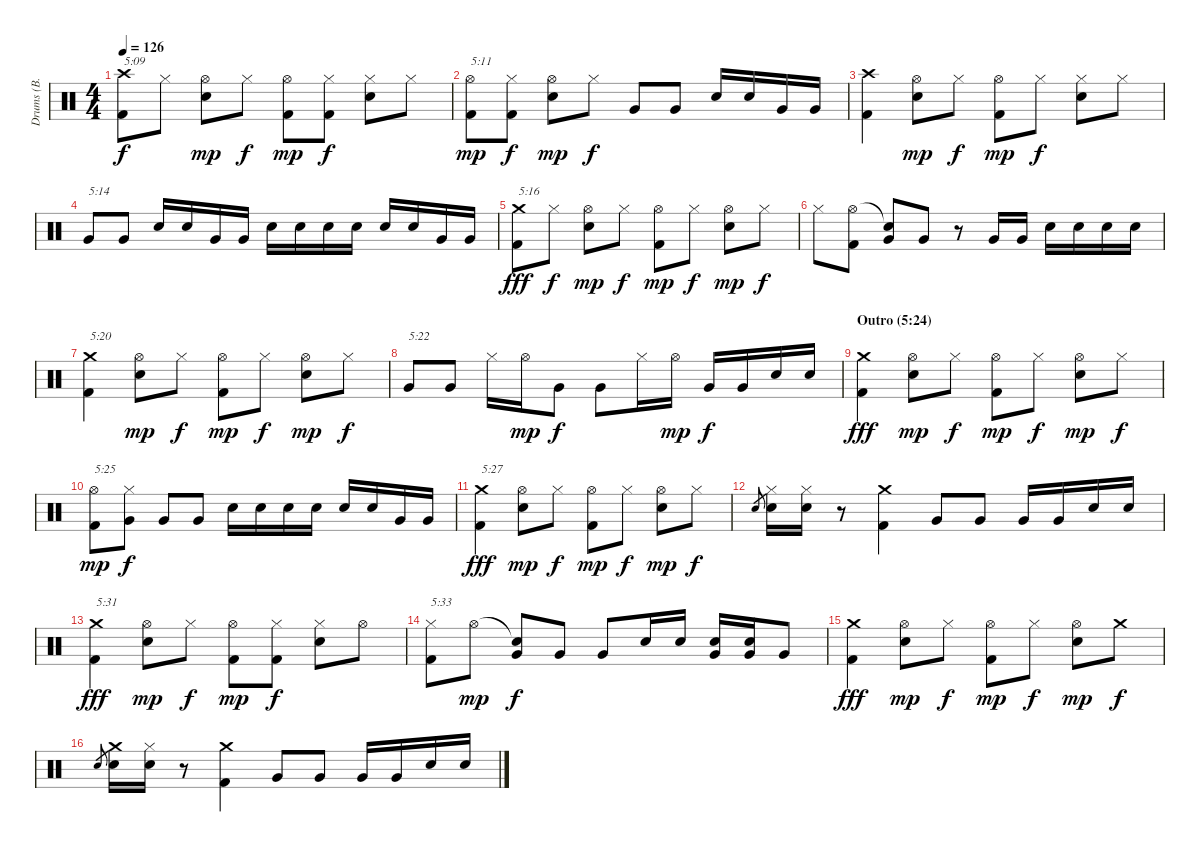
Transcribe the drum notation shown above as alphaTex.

\track ("Drums (B. Downey)" "Drums (B. ") {instrument percussion}
\staff {score}
\articulation defaults
\ts (4 4)
\tempo 126
\clef neutral
\ks c
("Crash high (hit)" "Kick (hit) 2").8{txt "5:09" dy f balance 8} "Hi-Hat (closed)".8 ("Hi-Hat (open)" "Electric Snare (hit)").8{dy mp} "Hi-Hat (closed)".8{dy f} ("Hi-Hat (open)" "Kick (hit) 2").8{dy mp} ("Hi-Hat (closed)" "Kick (hit) 2").8{dy f} ("Hi-Hat (closed)" "Electric Snare (hit)").8 "Hi-Hat (closed)".8 |
("Hi-Hat (open)" "Kick (hit) 2").8{txt "5:11" dy mp} ("Hi-Hat (closed)" "Kick (hit) 2").8{dy f} ("Hi-Hat (open)" "Electric Snare (hit)").8{dy mp} "Hi-Hat (closed)".8{dy f} "Very Low Tom (hit)".8 "Very Low Tom (hit)".8 "Electric Snare (hit)".16 "Electric Snare (hit)".16 "Very Low Tom (hit)".16 "Very Low Tom (hit)".16 |
("Crash high (hit)" "Kick (hit) 2").4 ("Hi-Hat (open)" "Electric Snare (hit)").8{dy mp} "Hi-Hat (closed)".8{dy f} ("Hi-Hat (open)" "Kick (hit) 2").8{dy mp} "Hi-Hat (closed)".8{dy f} ("Hi-Hat (closed)" "Electric Snare (hit)").8 "Hi-Hat (closed)".8 |
"Very Low Tom (hit)".8{txt "5:14"} "Very Low Tom (hit)".8 "Electric Snare (hit)".16 "Electric Snare (hit)".16 "Very Low Tom (hit)".16 "Very Low Tom (hit)".16 "Electric Snare (hit)".16 "Electric Snare (hit)".16 "Electric Snare (hit)".16 "Electric Snare (hit)".16 "Electric Snare (hit)".16 "Electric Snare (hit)".16 "Very Low Tom (hit)".16 "Very Low Tom (hit)".16 |
("Crash medium (hit)" "Kick (hit) 2").8{txt "5:16" dy fff} "Hi-Hat (closed)".8{dy f} ("Hi-Hat (open)" "Electric Snare (hit)").8{dy mp} "Hi-Hat (closed)".8{dy f} ("Hi-Hat (open)" "Kick (hit) 2").8{dy mp} "Hi-Hat (closed)".8{dy f} ("Hi-Hat (open)" "Electric Snare (hit)").8{dy mp} "Hi-Hat (closed)".8{dy f} |
"Hi-Hat (closed)".8 ("Hi-Hat (open)" "Kick (hit) 2").8 ("Snare (hit)"{t} "Very Low Tom (hit)").8 "Very Low Tom (hit)".8 r.8 "Very Low Tom (hit)".16 "Very Low Tom (hit)".16 "Electric Snare (hit)".16 "Electric Snare (hit)".16 "Electric Snare (hit)".16 "Electric Snare (hit)".16 |
("Crash medium (hit)" "Kick (hit) 2").4{txt "5:20"} ("Hi-Hat (open)" "Electric Snare (hit)").8{dy mp} "Hi-Hat (closed)".8{dy f} ("Hi-Hat (open)" "Kick (hit) 2").8{dy mp} "Hi-Hat (closed)".8{dy f} ("Hi-Hat (open)" "Electric Snare (hit)").8{dy mp} "Hi-Hat (closed)".8{dy f} |
"Very Low Tom (hit)".8{txt "5:22"} "Very Low Tom (hit)".8 "Hi-Hat (closed)".16 "Hi-Hat (open)".16{dy mp} "Very Low Tom (hit)".8{dy f} "Very Low Tom (hit)".8 "Hi-Hat (closed)".16 "Hi-Hat (open)".16{dy mp} "Very Low Tom (hit)".16{dy f} "Very Low Tom (hit)".16 "Electric Snare (hit)".16 "Electric Snare (hit)".16 |
\section ("" "Outro (5:24)")
("Crash medium (hit)" "Kick (hit) 2").4{dy fff} ("Hi-Hat (open)" "Electric Snare (hit)").8{dy mp} "Hi-Hat (closed)".8{dy f} ("Hi-Hat (open)" "Kick (hit) 2").8{dy mp} "Hi-Hat (closed)".8{dy f} ("Hi-Hat (open)" "Electric Snare (hit)").8{dy mp} "Hi-Hat (closed)".8{dy f} |
("Hi-Hat (open)" "Kick (hit) 2").8{txt "5:25" dy mp} ("Hi-Hat (closed)" "Very Low Tom (hit)").8{dy f} "Very Low Tom (hit)".8 "Very Low Tom (hit)".8 "Electric Snare (hit)".16 "Electric Snare (hit)".16 "Electric Snare (hit)".16 "Electric Snare (hit)".16 "Electric Snare (hit)".16 "Electric Snare (hit)".16 "Very Low Tom (hit)".16 "Very Low Tom (hit)".16 |
("Crash medium (hit)" "Kick (hit) 2").4{txt "5:27" dy fff} ("Hi-Hat (open)" "Electric Snare (hit)").8{dy mp} "Hi-Hat (closed)".8{dy f} ("Hi-Hat (open)" "Kick (hit) 2").8{dy mp} "Hi-Hat (closed)".8{dy f} ("Hi-Hat (open)" "Electric Snare (hit)").8{dy mp} "Hi-Hat (closed)".8{dy f} |
"Electric Snare (hit)".8{gr} ("Hi-Hat (closed)" "Electric Snare (hit)").16{volume 7} ("Hi-Hat (closed)" "Electric Snare (hit)").16 r.8 ("Crash medium (hit)" "Kick (hit) 2").4 "Very Low Tom (hit)".8 "Very Low Tom (hit)".8 "Very Low Tom (hit)".16 "Very Low Tom (hit)".16 "Electric Snare (hit)".16 "Electric Snare (hit)".16 |
("Crash medium (hit)" "Kick (hit) 2").4{txt "5:31" dy fff} ("Hi-Hat (open)" "Electric Snare (hit)").8{dy mp} "Hi-Hat (closed)".8{dy f} ("Hi-Hat (open)" "Kick (hit) 2").8{dy mp} ("Hi-Hat (closed)" "Kick (hit) 2").8{dy f} ("Hi-Hat (closed)" "Electric Snare (hit)").8 "Hi-Hat (open)".8 |
("Hi-Hat (closed)" "Kick (hit) 2").8{txt "5:33"} "Hi-Hat (open)".8{dy mp} ("Snare (hit)"{t} "Very Low Tom (hit)").8{dy f} "Very Low Tom (hit)".8 "Very Low Tom (hit)".8 "Electric Snare (hit)".16 "Electric Snare (hit)".16 ("Electric Snare (hit)" "Very Low Tom (hit)").16 ("Electric Snare (hit)" "Very Low Tom (hit)").16 "Very Low Tom (hit)".8 |
("Crash medium (hit)" "Kick (hit) 2").4{dy fff} ("Hi-Hat (open)" "Electric Snare (hit)").8{dy mp} "Hi-Hat (closed)".8{dy f} ("Hi-Hat (open)" "Kick (hit) 2").8{dy mp} "Hi-Hat (closed)".8{dy f} ("Hi-Hat (open)" "Electric Snare (hit)").8{dy mp} "Crash medium (hit)".8{dy f} |
"Electric Snare (hit)".8{gr} ("Crash medium (hit)" "Electric Snare (hit)").16{volume 0} ("Hi-Hat (closed)" "Electric Snare (hit)").16 r.8 ("Crash medium (hit)" "Kick (hit) 2").4 "Very Low Tom (hit)".8 "Very Low Tom (hit)".8 "Very Low Tom (hit)".16 "Very Low Tom (hit)".16 "Electric Snare (hit)".16 "Electric Snare (hit)".16
